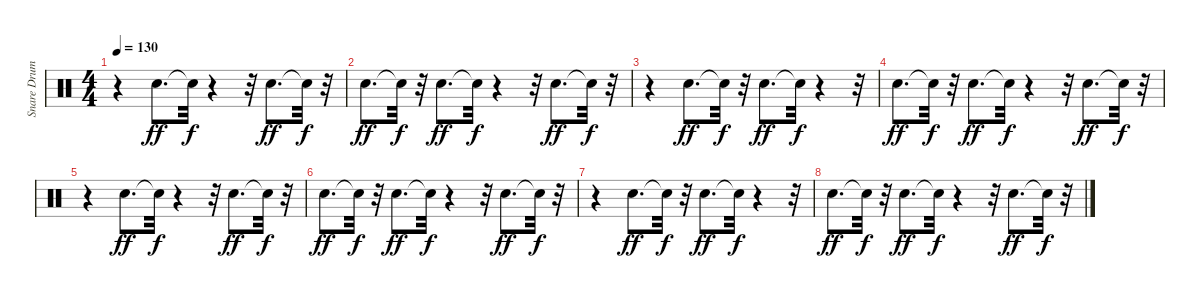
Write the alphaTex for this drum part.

\track ("Snare Drum" "Snare Drum") {instrument percussion}
\staff {score}
\articulation defaults
\ts (4 4)
\tempo 130
\clef neutral
\ks c
r.4{dy f} "Snare (hit) 2".8{d dy ff} "Snare (hit)"{t}.32{dy f} r.4 r.32 "Snare (hit) 2".8{d dy ff} "Snare (hit)"{t}.32{dy f} r.32 |
"Snare (hit) 2".8{d dy ff} "Snare (hit)"{t}.32{dy f} r.32 "Snare (hit) 2".8{d dy ff} "Snare (hit)"{t}.32{dy f} r.4 r.32 "Snare (hit) 2".8{d dy ff} "Snare (hit)"{t}.32{dy f} r.32 |
r.4 "Snare (hit) 2".8{d dy ff} "Snare (hit)"{t}.32{dy f} r.32 "Snare (hit) 2".8{d dy ff} "Snare (hit)"{t}.32{dy f} r.4 r.32 |
"Snare (hit) 2".8{d dy ff} "Snare (hit)"{t}.32{dy f} r.32 "Snare (hit) 2".8{d dy ff} "Snare (hit)"{t}.32{dy f} r.4 r.32 "Snare (hit) 2".8{d dy ff} "Snare (hit)"{t}.32{dy f} r.32 |
r.4 "Snare (hit) 2".8{d dy ff} "Snare (hit)"{t}.32{dy f} r.4 r.32 "Snare (hit) 2".8{d dy ff} "Snare (hit)"{t}.32{dy f} r.32 |
"Snare (hit) 2".8{d dy ff} "Snare (hit)"{t}.32{dy f} r.32 "Snare (hit) 2".8{d dy ff} "Snare (hit)"{t}.32{dy f} r.4 r.32 "Snare (hit) 2".8{d dy ff} "Snare (hit)"{t}.32{dy f} r.32 |
r.4 "Snare (hit) 2".8{d dy ff} "Snare (hit)"{t}.32{dy f} r.32 "Snare (hit) 2".8{d dy ff} "Snare (hit)"{t}.32{dy f} r.4 r.32 |
"Snare (hit) 2".8{d dy ff} "Snare (hit)"{t}.32{dy f} r.32 "Snare (hit) 2".8{d dy ff} "Snare (hit)"{t}.32{dy f} r.4 r.32 "Snare (hit) 2".8{d dy ff} "Snare (hit)"{t}.32{dy f} r.32
